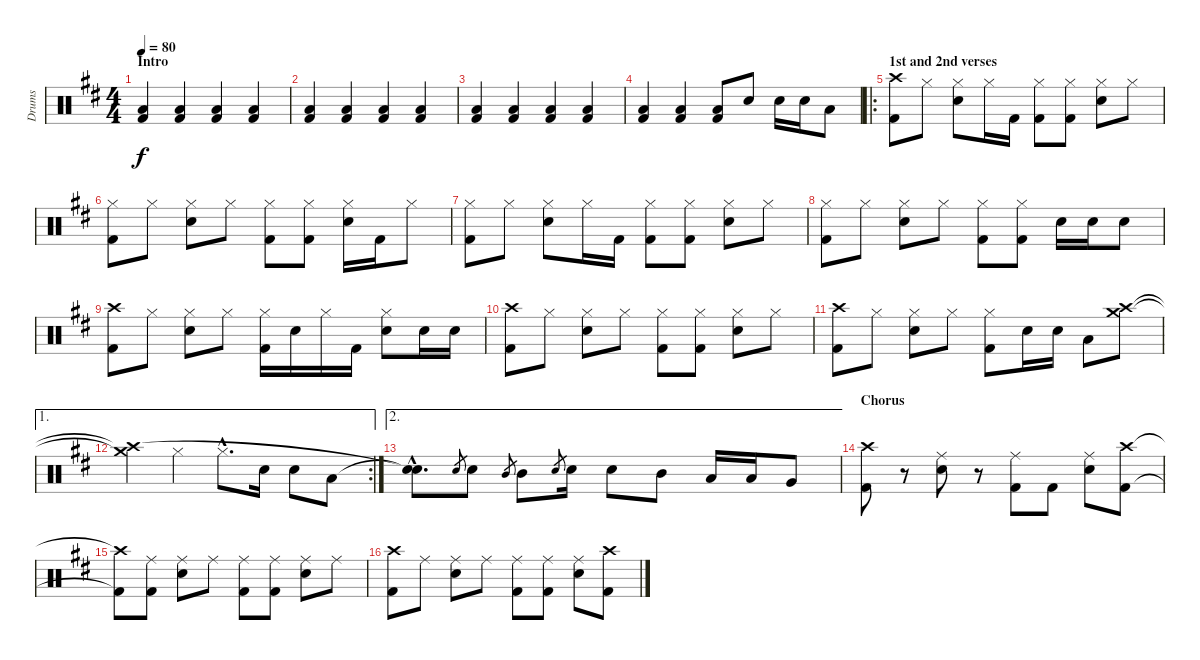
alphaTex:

\track ("Drums" "Drums") {instrument percussion}
\staff {score}
\articulation defaults
\ts (4 4)
\section ("" "Intro")
\tempo 80
\clef neutral
\ks d
("Low Tom (hit)" "Kick (hit) 2").4{dy f} ("Low Tom (hit)" "Kick (hit) 2").4 ("Low Tom (hit)" "Kick (hit) 2").4 ("Low Tom (hit)" "Kick (hit) 2").4 |
("Low Tom (hit)" "Kick (hit) 2").4 ("Low Tom (hit)" "Kick (hit) 2").4 ("Low Tom (hit)" "Kick (hit) 2").4 ("Low Tom (hit)" "Kick (hit) 2").4 |
("Low Tom (hit)" "Kick (hit) 2").4 ("Low Tom (hit)" "Kick (hit) 2").4 ("Low Tom (hit)" "Kick (hit) 2").4 ("Low Tom (hit)" "Kick (hit) 2").4 |
("Low Tom (hit)" "Kick (hit) 2").4 ("Low Tom (hit)" "Kick (hit) 2").4 ("Low Tom (hit)" "Kick (hit) 2").8 "Snare (hit) 2".8 "Snare (hit) 2".16 "Snare (hit) 2".16 "Low Tom (hit)".8 |
\ro
\section ("" "1st and 2nd verses")
("Crash high (hit)" "Kick (hit) 2").8 "Hi-Hat (closed)".8 ("Hi-Hat (closed)" "Snare (hit) 2").8 "Hi-Hat (closed)".16 "Kick (hit) 2".16 ("Hi-Hat (closed)" "Kick (hit) 2").8 ("Hi-Hat (closed)" "Kick (hit) 2").8 ("Hi-Hat (closed)" "Snare (hit) 2").8 "Hi-Hat (closed)".8 |
("Hi-Hat (closed)" "Kick (hit) 2").8 "Hi-Hat (closed)".8 ("Hi-Hat (closed)" "Snare (hit) 2").8 "Hi-Hat (closed)".8 ("Hi-Hat (closed)" "Kick (hit) 2").8 ("Hi-Hat (closed)" "Kick (hit) 2").8 ("Hi-Hat (closed)" "Snare (hit) 2").16 "Kick (hit) 2".16 "Hi-Hat (closed)".8 |
("Hi-Hat (closed)" "Kick (hit) 2").8 "Hi-Hat (closed)".8 ("Hi-Hat (closed)" "Snare (hit) 2").8 "Hi-Hat (closed)".16 "Kick (hit) 2".16 ("Hi-Hat (closed)" "Kick (hit) 2").8 ("Hi-Hat (closed)" "Kick (hit) 2").8 ("Hi-Hat (closed)" "Snare (hit) 2").8 "Hi-Hat (closed)".8 |
("Hi-Hat (closed)" "Kick (hit) 2").8 "Hi-Hat (closed)".8 ("Hi-Hat (closed)" "Snare (hit) 2").8 "Hi-Hat (closed)".8 ("Hi-Hat (closed)" "Kick (hit) 2").8 ("Hi-Hat (closed)" "Kick (hit) 2").8 "Snare (hit) 2".16 "Snare (hit) 2".16 "Snare (hit) 2".8 |
("Crash high (hit)" "Kick (hit) 2").8 "Hi-Hat (closed)".8 ("Hi-Hat (closed)" "Snare (hit) 2").8 "Hi-Hat (closed)".8 ("Hi-Hat (closed)" "Kick (hit) 2").16 "Snare (hit) 2".16 "Hi-Hat (closed)".16 "Kick (hit) 2".16 ("Hi-Hat (closed)" "Snare (hit) 2").8 "Snare (hit) 2".16 "Snare (hit) 2".16 |
("Crash high (hit)" "Kick (hit) 2").8 "Hi-Hat (closed)".8 ("Hi-Hat (closed)" "Snare (hit) 2").8 "Hi-Hat (closed)".8 ("Hi-Hat (closed)" "Kick (hit) 2").8 ("Hi-Hat (closed)" "Kick (hit) 2").8 ("Hi-Hat (closed)" "Snare (hit) 2").8 "Hi-Hat (closed)".8 |
("Crash high (hit)" "Kick (hit) 2").8 "Hi-Hat (closed)".8 ("Hi-Hat (closed)" "Snare (hit) 2").8 "Hi-Hat (closed)".8 ("Hi-Hat (closed)" "Kick (hit) 2").8 "Snare (hit) 2".16 "Snare (hit) 2".16 "Low Tom (hit)".8 ("Crash medium (hit)" "Crash high (hit)").8 |
\ae 1
\rc 2
("Crash medium (hit)"{t} "Crash high (hit)"{t}).4 "Hi-Hat (closed)".4 "Hi-Hat (closed)"{hac}.8{d} "Snare (hit) 2".16 "Snare (hit) 2".8 "Low Tom (hit)".8 |
\ae 2
("Snare (hit)"{hac t} "Snare (hit)"{hac t}).8{d} "Snare (hit) 2".8{gr} "Snare (hit) 2".8 "Mid Tom (hit)".8{gr} "Mid Tom (hit)".8 "Snare (hit) 2".8{gr} "Snare (hit) 2".16 "Snare (hit) 2".8 "Mid Tom (hit)".8 "Low Tom (hit)".16 "Low Tom (hit)".16 "Very Low Tom (hit)".8 |
\section ("" "Chorus")
("Crash high (hit)" "Kick (hit) 2").8 r.8 ("Ride (middle)" "Snare (hit) 2").8 r.8 ("Ride (middle)" "Kick (hit) 2").8 "Kick (hit) 2".8 ("Ride (middle)" "Snare (hit) 2").8 ("Crash high (hit)" "Kick (hit) 2").8 |
("Crash high (hit)"{t} "Kick (hit) 2"{t}).8 ("Ride (middle)" "Kick (hit) 2").8 ("Ride (middle)" "Snare (hit) 2").8 "Ride (middle)".8 ("Ride (middle)" "Kick (hit) 2").8 ("Ride (middle)" "Kick (hit) 2").8 ("Ride (middle)" "Snare (hit) 2").8 "Ride (middle)".8 |
("Crash high (hit)" "Kick (hit) 2").8 "Ride (middle)".8 ("Ride (middle)" "Snare (hit) 2").8 "Ride (middle)".8 ("Ride (middle)" "Kick (hit) 2").8 ("Ride (middle)" "Kick (hit) 2").8 ("Ride (middle)" "Snare (hit) 2").8 ("Crash high (hit)" "Kick (hit) 2").8
